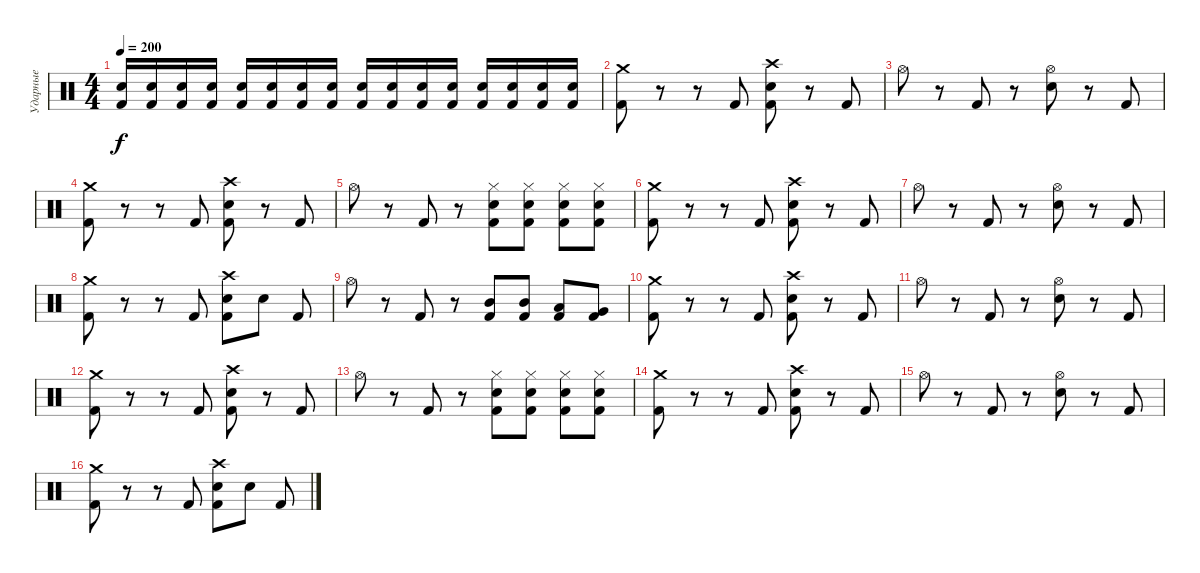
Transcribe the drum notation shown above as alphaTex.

\track ("Ударные" "Ударные") {instrument percussion}
\staff {score}
\articulation defaults
\ts (4 4)
\tempo 200
\clef neutral
\ks c
("Snare (hit) 2" "Kick (hit) 2").16{dy f} ("Snare (hit) 2" "Kick (hit) 2").16 ("Snare (hit) 2" "Kick (hit) 2").16 ("Snare (hit) 2" "Kick (hit) 2").16 ("Snare (hit) 2" "Kick (hit) 2").16 ("Snare (hit) 2" "Kick (hit) 2").16 ("Snare (hit) 2" "Kick (hit) 2").16 ("Snare (hit) 2" "Kick (hit) 2").16 ("Snare (hit) 2" "Kick (hit) 2").16 ("Snare (hit) 2" "Kick (hit) 2").16 ("Snare (hit) 2" "Kick (hit) 2").16 ("Snare (hit) 2" "Kick (hit) 2").16 ("Snare (hit) 2" "Kick (hit) 2").16 ("Snare (hit) 2" "Kick (hit) 2").16 ("Snare (hit) 2" "Kick (hit) 2").16 ("Snare (hit) 2" "Kick (hit) 2").16 |
("Crash medium (hit)" "Kick (hit) 2").8 r.8 r.8 "Kick (hit) 2".8 ("Crash high (hit)" "Snare (hit) 2" "Kick (hit) 2").8 r.8 "Kick (hit) 2".8 |
"Hi-Hat (open)".8 r.8 "Kick (hit) 2".8 r.8 ("Hi-Hat (open)" "Snare (hit) 2").8 r.8 "Kick (hit) 2".8 |
("Crash medium (hit)" "Kick (hit) 2").8 r.8 r.8 "Kick (hit) 2".8 ("Crash high (hit)" "Snare (hit) 2" "Kick (hit) 2").8 r.8 "Kick (hit) 2".8 |
"Hi-Hat (open)".8 r.8 "Kick (hit) 2".8 r.8 ("Hi-Hat (closed)" "Snare (hit) 2" "Kick (hit) 2").8 ("Hi-Hat (closed)" "Snare (hit) 2" "Kick (hit) 2").8 ("Hi-Hat (closed)" "Snare (hit) 2" "Kick (hit) 2").8 ("Hi-Hat (closed)" "Snare (hit) 2" "Kick (hit) 2").8 |
("Crash medium (hit)" "Kick (hit) 2").8 r.8 r.8 "Kick (hit) 2".8 ("Crash high (hit)" "Snare (hit) 2" "Kick (hit) 2").8 r.8 "Kick (hit) 2".8 |
"Hi-Hat (open)".8 r.8 "Kick (hit) 2".8 r.8 ("Hi-Hat (open)" "Snare (hit) 2").8 r.8 "Kick (hit) 2".8 |
("Crash medium (hit)" "Kick (hit) 2").8 r.8 r.8 "Kick (hit) 2".8 ("Crash high (hit)" "Snare (hit) 2" "Kick (hit) 2").8 "Snare (hit) 2".8 "Kick (hit) 2".8 |
"Hi-Hat (open)".8 r.8 "Kick (hit) 2".8 r.8 ("Mid Tom (hit)" "Kick (hit) 2").8 ("Mid Tom (hit)" "Kick (hit) 2").8 ("Low Tom (hit)" "Kick (hit) 2").8 ("Very Low Tom (hit)" "Kick (hit) 2").8 |
("Crash medium (hit)" "Kick (hit) 2").8 r.8 r.8 "Kick (hit) 2".8 ("Crash high (hit)" "Snare (hit) 2" "Kick (hit) 2").8 r.8 "Kick (hit) 2".8 |
"Hi-Hat (open)".8 r.8 "Kick (hit) 2".8 r.8 ("Hi-Hat (open)" "Snare (hit) 2").8 r.8 "Kick (hit) 2".8 |
("Crash medium (hit)" "Kick (hit) 2").8 r.8 r.8 "Kick (hit) 2".8 ("Crash high (hit)" "Snare (hit) 2" "Kick (hit) 2").8 r.8 "Kick (hit) 2".8 |
"Hi-Hat (open)".8 r.8 "Kick (hit) 2".8 r.8 ("Hi-Hat (closed)" "Snare (hit) 2" "Kick (hit) 2").8 ("Hi-Hat (closed)" "Snare (hit) 2" "Kick (hit) 2").8 ("Hi-Hat (closed)" "Snare (hit) 2" "Kick (hit) 2").8 ("Hi-Hat (closed)" "Snare (hit) 2" "Kick (hit) 2").8 |
("Crash medium (hit)" "Kick (hit) 2").8 r.8 r.8 "Kick (hit) 2".8 ("Crash high (hit)" "Snare (hit) 2" "Kick (hit) 2").8 r.8 "Kick (hit) 2".8 |
"Hi-Hat (open)".8 r.8 "Kick (hit) 2".8 r.8 ("Hi-Hat (open)" "Snare (hit) 2").8 r.8 "Kick (hit) 2".8 |
("Crash medium (hit)" "Kick (hit) 2").8 r.8 r.8 "Kick (hit) 2".8 ("Crash high (hit)" "Snare (hit) 2" "Kick (hit) 2").8 "Snare (hit) 2".8 "Kick (hit) 2".8
